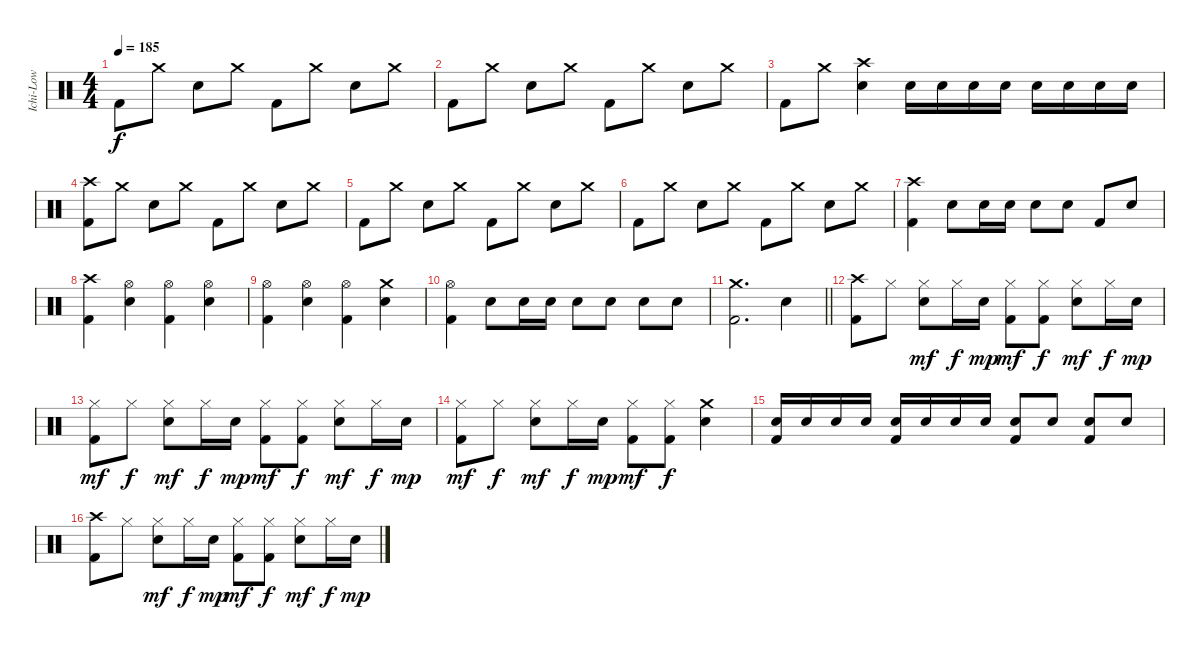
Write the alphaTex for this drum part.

\track ("Ichi-Low" "Ichi-Low") {instrument percussion}
\staff {score}
\articulation defaults
\ts (4 4)
\tempo 185
\clef neutral
\ks c "Kick (hit) 2".8{dy f} "Crash medium (hit)".8 "Electric Snare (hit)".8 "Crash medium (hit)".8 "Kick (hit) 2".8 "Crash medium (hit)".8 "Electric Snare (hit)".8 "Crash medium (hit)".8
|
"Kick (hit) 2".8 "Crash medium (hit)".8 "Electric Snare (hit)".8 "Crash medium (hit)".8 "Kick (hit) 2".8 "Crash medium (hit)".8 "Electric Snare (hit)".8 "Crash medium (hit)".8 |
"Kick (hit) 2".8 "Crash medium (hit)".8 ("Crash high (hit)" "Electric Snare (hit)").4 "Electric Snare (hit)".16 "Electric Snare (hit)".16 "Electric Snare (hit)".16 "Electric Snare (hit)".16 "Electric Snare (hit)".16 "Electric Snare (hit)".16 "Electric Snare (hit)".16 "Electric Snare (hit)".16 |
("Crash high (hit)" "Kick (hit) 2").8 "Crash medium (hit)".8 "Electric Snare (hit)".8 "Crash medium (hit)".8 "Kick (hit) 2".8 "Crash medium (hit)".8 "Electric Snare (hit)".8 "Crash medium (hit)".8 |
"Kick (hit) 2".8 "Crash medium (hit)".8 "Electric Snare (hit)".8 "Crash medium (hit)".8 "Kick (hit) 2".8 "Crash medium (hit)".8 "Electric Snare (hit)".8 "Crash medium (hit)".8 |
"Kick (hit) 2".8 "Crash medium (hit)".8 "Electric Snare (hit)".8 "Crash medium (hit)".8 "Kick (hit) 2".8 "Crash medium (hit)".8 "Electric Snare (hit)".8 "Crash medium (hit)".8 |
("Crash high (hit)" "Kick (hit) 2").4 "Electric Snare (hit)".8 "Electric Snare (hit)".16 "Electric Snare (hit)".16 "Electric Snare (hit)".8 "Electric Snare (hit)".8 "Kick (hit) 2".8 "Electric Snare (hit)".8 |
("Crash high (hit)" "Kick (hit) 2").4 ("Hi-Hat (open)" "Electric Snare (hit)").4 ("Hi-Hat (open)" "Kick (hit) 2").4 ("Hi-Hat (open)" "Electric Snare (hit)").4 |
("Hi-Hat (open)" "Kick (hit) 2").4 ("Hi-Hat (open)" "Electric Snare (hit)").4 ("Hi-Hat (open)" "Kick (hit) 2").4 ("Crash medium (hit)" "Electric Snare (hit)").4 |
("Hi-Hat (open)" "Kick (hit) 2").4 "Electric Snare (hit)".8 "Electric Snare (hit)".16 "Electric Snare (hit)".16 "Electric Snare (hit)".8 "Electric Snare (hit)".8 "Electric Snare (hit)".8 "Electric Snare (hit)".8 |
\barLineRight lightlight
("Crash medium (hit)" "Kick (hit) 2").2{d} "Electric Snare (hit)".4 |
\section ("" "")
("Crash high (hit)" "Kick (hit) 2").8 "Hi-Hat (closed)".8 ("Hi-Hat (closed)" "Electric Snare (hit)").8{dy mf} "Hi-Hat (closed)".16{dy f} "Electric Snare (hit)".16{dy mp} ("Hi-Hat (closed)" "Kick (hit) 2").8{dy mf} ("Hi-Hat (closed)" "Kick (hit) 2").8{dy f} ("Hi-Hat (closed)" "Electric Snare (hit)").8{dy mf} "Hi-Hat (closed)".16{dy f} "Electric Snare (hit)".16{dy mp} |
("Hi-Hat (closed)" "Kick (hit) 2").8{dy mf} "Hi-Hat (closed)".8{dy f} ("Hi-Hat (closed)" "Electric Snare (hit)").8{dy mf} "Hi-Hat (closed)".16{dy f} "Electric Snare (hit)".16{dy mp} ("Hi-Hat (closed)" "Kick (hit) 2").8{dy mf} ("Hi-Hat (closed)" "Kick (hit) 2").8{dy f} ("Hi-Hat (closed)" "Electric Snare (hit)").8{dy mf} "Hi-Hat (closed)".16{dy f} "Electric Snare (hit)".16{dy mp} |
("Hi-Hat (closed)" "Kick (hit) 2").8{dy mf} "Hi-Hat (closed)".8{dy f} ("Hi-Hat (closed)" "Electric Snare (hit)").8{dy mf} "Hi-Hat (closed)".16{dy f} "Electric Snare (hit)".16{dy mp} ("Hi-Hat (closed)" "Kick (hit) 2").8{dy mf} ("Hi-Hat (closed)" "Kick (hit) 2").8{dy f} ("Crash medium (hit)" "Electric Snare (hit)").4 |
("Electric Snare (hit)" "Kick (hit) 2").16 "Electric Snare (hit)".16 "Electric Snare (hit)".16 "Electric Snare (hit)".16 ("Electric Snare (hit)" "Kick (hit) 2").16 "Electric Snare (hit)".16 "Electric Snare (hit)".16 "Electric Snare (hit)".16 ("Electric Snare (hit)" "Kick (hit) 2").8 "Electric Snare (hit)".8 ("Electric Snare (hit)" "Kick (hit) 2").8 "Electric Snare (hit)".8 |
("Crash high (hit)" "Kick (hit) 2").8 "Hi-Hat (closed)".8 ("Hi-Hat (closed)" "Electric Snare (hit)").8{dy mf} "Hi-Hat (closed)".16{dy f} "Electric Snare (hit)".16{dy mp} ("Hi-Hat (closed)" "Kick (hit) 2").8{dy mf} ("Hi-Hat (closed)" "Kick (hit) 2").8{dy f} ("Hi-Hat (closed)" "Electric Snare (hit)").8{dy mf} "Hi-Hat (closed)".16{dy f} "Electric Snare (hit)".16{dy mp}
